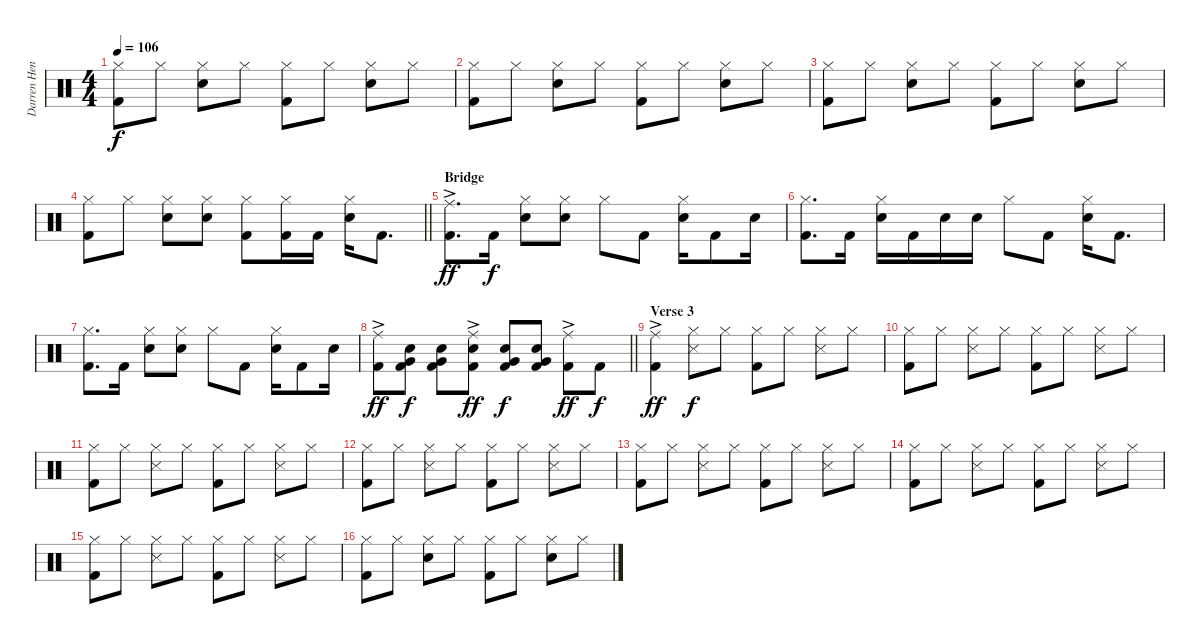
\track ("Darren Henley [Drums]" "Darren Hen") {instrument percussion}
\staff {score}
\articulation defaults
\ts (4 4)
\tempo 106
\clef neutral
\ks c
("Hi-Hat (closed)" "Kick (hit) 2").8{dy f} "Hi-Hat (closed)".8 ("Hi-Hat (closed)" "Snare (hit) 2").8 "Hi-Hat (closed)".8 ("Hi-Hat (closed)" "Kick (hit) 2").8 "Hi-Hat (closed)".8 ("Hi-Hat (closed)" "Snare (hit) 2").8 "Hi-Hat (closed)".8 |
("Hi-Hat (closed)" "Kick (hit) 2").8 "Hi-Hat (closed)".8 ("Hi-Hat (closed)" "Snare (hit) 2").8 "Hi-Hat (closed)".8 ("Hi-Hat (closed)" "Kick (hit) 2").8 "Hi-Hat (closed)".8 ("Hi-Hat (closed)" "Snare (hit) 2").8 "Hi-Hat (closed)".8 |
("Hi-Hat (closed)" "Kick (hit) 2").8 "Hi-Hat (closed)".8 ("Hi-Hat (closed)" "Snare (hit) 2").8 "Hi-Hat (closed)".8 ("Hi-Hat (closed)" "Kick (hit) 2").8 "Hi-Hat (closed)".8 ("Hi-Hat (closed)" "Snare (hit) 2").8 "Hi-Hat (closed)".8 |
\barLineRight lightlight
("Hi-Hat (closed)" "Kick (hit) 2").8 "Hi-Hat (closed)".8 ("Hi-Hat (closed)" "Snare (hit) 2").8 ("Hi-Hat (closed)" "Snare (hit) 2").8 ("Hi-Hat (closed)" "Kick (hit) 2").8 ("Hi-Hat (closed)" "Kick (hit) 2").16 "Kick (hit) 2".16 ("Hi-Hat (closed)" "Snare (hit) 2").16 "Kick (hit) 2".8{d} |
\section ("" "Bridge")
("Ride (middle)"{ac} "Kick (hit) 2").8{d dy ff} "Kick (hit) 2".16{dy f} ("Hi-Hat (closed)" "Snare (hit) 2").8 ("Hi-Hat (closed)" "Snare (hit) 2").8 "Hi-Hat (closed)".8 "Kick (hit) 2".8 ("Hi-Hat (closed)" "Snare (hit) 2").16 "Kick (hit) 2".8 "Snare (hit) 2".16 |
("Hi-Hat (closed)" "Kick (hit) 2").8{d} "Kick (hit) 2".16 ("Hi-Hat (closed)" "Snare (hit) 2").16 "Kick (hit) 2".16 "Snare (hit) 2".16 "Snare (hit) 2".16 "Hi-Hat (closed)".8 "Kick (hit) 2".8 ("Hi-Hat (closed)" "Snare (hit) 2").16 "Kick (hit) 2".8{d} |
("Hi-Hat (closed)" "Kick (hit) 2").8{d} "Kick (hit) 2".16 ("Hi-Hat (closed)" "Snare (hit) 2").8 ("Hi-Hat (closed)" "Snare (hit) 2").8 "Hi-Hat (closed)".8 "Kick (hit) 2".8 ("Hi-Hat (closed)" "Snare (hit) 2").16 "Kick (hit) 2".8 "Snare (hit) 2".16 |
\barLineRight lightlight
("Ride (middle)"{ac} "Kick (hit) 2").8{dy ff} ("Snare (hit) 2" "Very Low Tom (hit)" "Kick (hit) 2").8{dy f} ("Snare (hit) 2" "Very Low Tom (hit)" "Kick (hit) 2").8 ("Ride (middle)"{ac} "Snare (hit) 2" "Kick (hit) 2").8{dy ff} ("Snare (hit) 2" "Very Low Tom (hit)" "Kick (hit) 2").8{dy f} ("Snare (hit) 2" "Very Low Tom (hit)" "Kick (hit) 2").8 ("Ride (middle)"{ac} "Kick (hit) 2").8{dy ff} "Kick (hit) 2".8{dy f} |
\section ("" "Verse 3")
("Ride (middle)"{ac} "Kick (hit) 2").4{dy ff} ("Hi-Hat (closed)" "Snare (side stick) 3").8{dy f} "Hi-Hat (closed)".8 ("Hi-Hat (closed)" "Kick (hit) 2").8 "Hi-Hat (closed)".8 ("Hi-Hat (closed)" "Snare (side stick) 3").8 "Hi-Hat (closed)".8 |
("Hi-Hat (closed)" "Kick (hit) 2").8 "Hi-Hat (closed)".8 ("Hi-Hat (closed)" "Snare (side stick) 3").8 "Hi-Hat (closed)".8 ("Hi-Hat (closed)" "Kick (hit) 2").8 "Hi-Hat (closed)".8 ("Hi-Hat (closed)" "Snare (side stick) 3").8 "Hi-Hat (closed)".8 |
("Hi-Hat (closed)" "Kick (hit) 2").8 "Hi-Hat (closed)".8 ("Hi-Hat (closed)" "Snare (side stick) 3").8 "Hi-Hat (closed)".8 ("Hi-Hat (closed)" "Kick (hit) 2").8 "Hi-Hat (closed)".8 ("Hi-Hat (closed)" "Snare (side stick) 3").8 "Hi-Hat (closed)".8 |
("Hi-Hat (closed)" "Kick (hit) 2").8 "Hi-Hat (closed)".8 ("Hi-Hat (closed)" "Snare (side stick) 3").8 "Hi-Hat (closed)".8 ("Hi-Hat (closed)" "Kick (hit) 2").8 "Hi-Hat (closed)".8 ("Hi-Hat (closed)" "Snare (side stick) 3").8 "Hi-Hat (closed)".8 |
("Hi-Hat (closed)" "Kick (hit) 2").8 "Hi-Hat (closed)".8 ("Hi-Hat (closed)" "Snare (side stick) 3").8 "Hi-Hat (closed)".8 ("Hi-Hat (closed)" "Kick (hit) 2").8 "Hi-Hat (closed)".8 ("Hi-Hat (closed)" "Snare (side stick) 3").8 "Hi-Hat (closed)".8 |
("Hi-Hat (closed)" "Kick (hit) 2").8 "Hi-Hat (closed)".8 ("Hi-Hat (closed)" "Snare (side stick) 3").8 "Hi-Hat (closed)".8 ("Hi-Hat (closed)" "Kick (hit) 2").8 "Hi-Hat (closed)".8 ("Hi-Hat (closed)" "Snare (side stick) 3").8 "Hi-Hat (closed)".8 |
("Hi-Hat (closed)" "Kick (hit) 2").8 "Hi-Hat (closed)".8 ("Hi-Hat (closed)" "Snare (side stick) 3").8 "Hi-Hat (closed)".8 ("Hi-Hat (closed)" "Kick (hit) 2").8 "Hi-Hat (closed)".8 ("Hi-Hat (closed)" "Snare (side stick) 3").8 "Hi-Hat (closed)".8 |
("Hi-Hat (closed)" "Kick (hit) 2").8 "Hi-Hat (closed)".8 ("Hi-Hat (closed)" "Snare (hit) 2").8 "Hi-Hat (closed)".8 ("Hi-Hat (closed)" "Kick (hit) 2").8 "Hi-Hat (closed)".8 ("Hi-Hat (closed)" "Snare (hit) 2").8 "Hi-Hat (closed)".8
